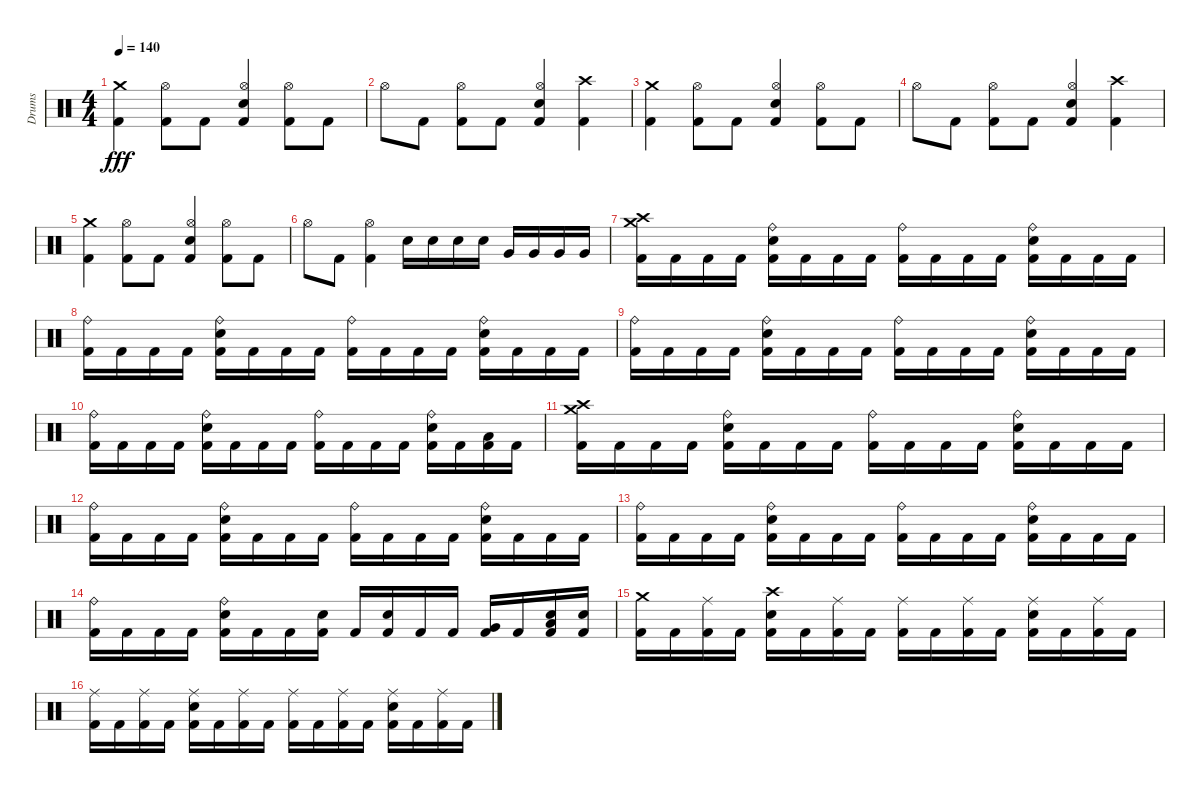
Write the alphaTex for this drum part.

\track ("Drums" "Drums") {instrument percussion}
\staff {score}
\articulation defaults
\ts (4 4)
\tempo 140
\clef neutral
\ks c
("Kick (hit) 2" "Crash medium (hit)").4{dy fff} ("Kick (hit) 2" "Hi-Hat (open)").8 "Kick (hit) 2".8 ("Kick (hit) 2" "Electric Snare (hit)" "Hi-Hat (open)").4 ("Kick (hit) 2" "Hi-Hat (open)").8 "Kick (hit) 2".8 |
"Hi-Hat (open)".8 "Kick (hit) 2".8 ("Kick (hit) 2" "Hi-Hat (open)").8 "Kick (hit) 2".8 ("Kick (hit) 2" "Electric Snare (hit)" "Hi-Hat (open)").4 ("Kick (hit) 2" "Crash high (hit)").4 |
("Kick (hit) 2" "Crash medium (hit)").4 ("Kick (hit) 2" "Hi-Hat (open)").8 "Kick (hit) 2".8 ("Kick (hit) 2" "Electric Snare (hit)" "Hi-Hat (open)").4 ("Kick (hit) 2" "Hi-Hat (open)").8 "Kick (hit) 2".8 |
"Hi-Hat (open)".8 "Kick (hit) 2".8 ("Kick (hit) 2" "Hi-Hat (open)").8 "Kick (hit) 2".8 ("Kick (hit) 2" "Electric Snare (hit)" "Hi-Hat (open)").4 ("Kick (hit) 2" "Crash high (hit)").4 |
("Kick (hit) 2" "Crash medium (hit)").4 ("Kick (hit) 2" "Hi-Hat (open)").8 "Kick (hit) 2".8 ("Kick (hit) 2" "Electric Snare (hit)" "Hi-Hat (open)").4 ("Kick (hit) 2" "Hi-Hat (open)").8 "Kick (hit) 2".8 |
"Hi-Hat (open)".8 "Kick (hit) 2".8 ("Kick (hit) 2" "Hi-Hat (open)").4 "Electric Snare (hit)".16 "Electric Snare (hit)".16 "Electric Snare (hit)".16 "Electric Snare (hit)".16 "Very Low Tom (hit)".16 "Very Low Tom (hit)".16 "Very Low Tom (hit)".16 "Very Low Tom (hit)".16 |
("Kick (hit) 2" "Crash high (hit)" "Crash medium (hit)").16 "Kick (hit) 2".16 "Kick (hit) 2".16 "Kick (hit) 2".16 ("Kick (hit) 2" "Electric Snare (hit)" "Ride (bell)").16 "Kick (hit) 2".16 "Kick (hit) 2".16 "Kick (hit) 2".16 ("Kick (hit) 2" "Ride (bell)").16 "Kick (hit) 2".16 "Kick (hit) 2".16 "Kick (hit) 2".16 ("Kick (hit) 2" "Electric Snare (hit)" "Ride (bell)").16 "Kick (hit) 2".16 "Kick (hit) 2".16 "Kick (hit) 2".16 |
("Kick (hit) 2" "Ride (bell)").16 "Kick (hit) 2".16 "Kick (hit) 2".16 "Kick (hit) 2".16 ("Kick (hit) 2" "Electric Snare (hit)" "Ride (bell)").16 "Kick (hit) 2".16 "Kick (hit) 2".16 "Kick (hit) 2".16 ("Kick (hit) 2" "Ride (bell)").16 "Kick (hit) 2".16 "Kick (hit) 2".16 "Kick (hit) 2".16 ("Kick (hit) 2" "Electric Snare (hit)" "Ride (bell)").16 "Kick (hit) 2".16 "Kick (hit) 2".16 "Kick (hit) 2".16 |
("Kick (hit) 2" "Ride (bell)").16 "Kick (hit) 2".16 "Kick (hit) 2".16 "Kick (hit) 2".16 ("Kick (hit) 2" "Electric Snare (hit)" "Ride (bell)").16 "Kick (hit) 2".16 "Kick (hit) 2".16 "Kick (hit) 2".16 ("Kick (hit) 2" "Ride (bell)").16 "Kick (hit) 2".16 "Kick (hit) 2".16 "Kick (hit) 2".16 ("Kick (hit) 2" "Electric Snare (hit)" "Ride (bell)").16 "Kick (hit) 2".16 "Kick (hit) 2".16 "Kick (hit) 2".16 |
("Kick (hit) 2" "Ride (bell)").16 "Kick (hit) 2".16 "Kick (hit) 2".16 "Kick (hit) 2".16 ("Kick (hit) 2" "Electric Snare (hit)" "Ride (bell)").16 "Kick (hit) 2".16 "Kick (hit) 2".16 "Kick (hit) 2".16 ("Kick (hit) 2" "Ride (bell)").16 "Kick (hit) 2".16 "Kick (hit) 2".16 "Kick (hit) 2".16 ("Kick (hit) 2" "Electric Snare (hit)" "Ride (bell)").16 "Kick (hit) 2".16 ("Kick (hit) 2" "Low Floor Tom (hit)").16 "Kick (hit) 2".16 |
("Kick (hit) 2" "Crash high (hit)" "Crash medium (hit)").16 "Kick (hit) 2".16 "Kick (hit) 2".16 "Kick (hit) 2".16 ("Kick (hit) 2" "Electric Snare (hit)" "Ride (bell)").16 "Kick (hit) 2".16 "Kick (hit) 2".16 "Kick (hit) 2".16 ("Kick (hit) 2" "Ride (bell)").16 "Kick (hit) 2".16 "Kick (hit) 2".16 "Kick (hit) 2".16 ("Kick (hit) 2" "Electric Snare (hit)" "Ride (bell)").16 "Kick (hit) 2".16 "Kick (hit) 2".16 "Kick (hit) 2".16 |
("Kick (hit) 2" "Ride (bell)").16 "Kick (hit) 2".16 "Kick (hit) 2".16 "Kick (hit) 2".16 ("Kick (hit) 2" "Electric Snare (hit)" "Ride (bell)").16 "Kick (hit) 2".16 "Kick (hit) 2".16 "Kick (hit) 2".16 ("Kick (hit) 2" "Ride (bell)").16 "Kick (hit) 2".16 "Kick (hit) 2".16 "Kick (hit) 2".16 ("Kick (hit) 2" "Electric Snare (hit)" "Ride (bell)").16 "Kick (hit) 2".16 "Kick (hit) 2".16 "Kick (hit) 2".16 |
("Kick (hit) 2" "Ride (bell)").16 "Kick (hit) 2".16 "Kick (hit) 2".16 "Kick (hit) 2".16 ("Kick (hit) 2" "Electric Snare (hit)" "Ride (bell)").16 "Kick (hit) 2".16 "Kick (hit) 2".16 "Kick (hit) 2".16 ("Kick (hit) 2" "Ride (bell)").16 "Kick (hit) 2".16 "Kick (hit) 2".16 "Kick (hit) 2".16 ("Kick (hit) 2" "Electric Snare (hit)" "Ride (bell)").16 "Kick (hit) 2".16 "Kick (hit) 2".16 "Kick (hit) 2".16 |
("Kick (hit) 2" "Ride (bell)").16 "Kick (hit) 2".16 "Kick (hit) 2".16 "Kick (hit) 2".16 ("Kick (hit) 2" "Electric Snare (hit)" "Ride (bell)").16 "Kick (hit) 2".16 "Kick (hit) 2".16 ("Kick (hit) 2" "Electric Snare (hit)").16 "Kick (hit) 2".16 ("Kick (hit) 2" "Electric Snare (hit)").16 "Kick (hit) 2".16 "Kick (hit) 2".16 ("Kick (hit) 2" "Very Low Tom (hit)").16 "Kick (hit) 2".16 ("Kick (hit) 2" "Electric Snare (hit)" "Low Tom (hit)").16 ("Kick (hit) 2" "Electric Snare (hit)").16 |
("Kick (hit) 2" "Crash medium (hit)").16 "Kick (hit) 2".16 ("Kick (hit) 2" "Ride (middle)").16 "Kick (hit) 2".16 ("Kick (hit) 2" "Electric Snare (hit)" "Crash high (hit)").16 "Kick (hit) 2".16 ("Kick (hit) 2" "Ride (middle)").16 "Kick (hit) 2".16 ("Kick (hit) 2" "Ride (middle)").16 "Kick (hit) 2".16 ("Kick (hit) 2" "Ride (middle)").16 "Kick (hit) 2".16 ("Kick (hit) 2" "Electric Snare (hit)" "Ride (middle)").16 "Kick (hit) 2".16 ("Kick (hit) 2" "Ride (middle)").16 "Kick (hit) 2".16 |
("Kick (hit) 2" "Ride (middle)").16 "Kick (hit) 2".16 ("Kick (hit) 2" "Ride (middle)").16 "Kick (hit) 2".16 ("Kick (hit) 2" "Electric Snare (hit)" "Ride (middle)").16 "Kick (hit) 2".16 ("Kick (hit) 2" "Ride (middle)").16 "Kick (hit) 2".16 ("Kick (hit) 2" "Ride (middle)").16 "Kick (hit) 2".16 ("Kick (hit) 2" "Ride (middle)").16 "Kick (hit) 2".16 ("Kick (hit) 2" "Electric Snare (hit)" "Ride (middle)").16 "Kick (hit) 2".16 ("Kick (hit) 2" "Ride (middle)").16 "Kick (hit) 2".16
